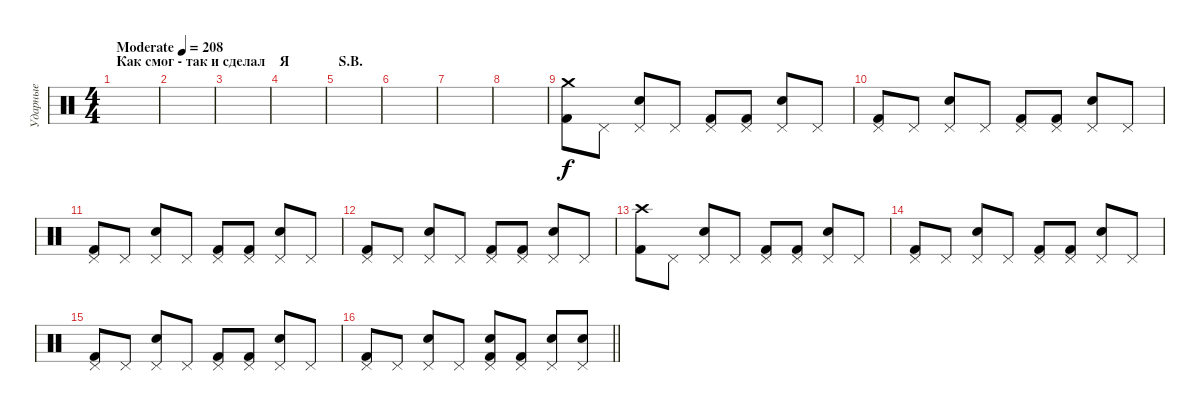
\track ("Ударные" "Ударные") {instrument percussion}
\staff {score}
\articulation defaults
\ts (4 4)
\section ("" "Как смог - так и сделал    Я              S.B.")
\tempo (208 "Moderate")
\clef neutral
\ks c
|
|
|
|
|
|
|
|
("Crash medium (hit)" "Kick (hit) 2").8 "Pedal Hi-Hat (hit)".8 ("Pedal Hi-Hat (hit)" "Electric Snare (hit)").8 "Pedal Hi-Hat (hit)".8 ("Pedal Hi-Hat (hit)" "Kick (hit) 2").8 ("Pedal Hi-Hat (hit)" "Kick (hit) 2").8 ("Pedal Hi-Hat (hit)" "Electric Snare (hit)").8 "Pedal Hi-Hat (hit)".8 |
("Pedal Hi-Hat (hit)" "Kick (hit) 2").8 "Pedal Hi-Hat (hit)".8 ("Pedal Hi-Hat (hit)" "Electric Snare (hit)").8 "Pedal Hi-Hat (hit)".8 ("Pedal Hi-Hat (hit)" "Kick (hit) 2").8 ("Pedal Hi-Hat (hit)" "Kick (hit) 2").8 ("Pedal Hi-Hat (hit)" "Electric Snare (hit)").8 "Pedal Hi-Hat (hit)".8 |
("Pedal Hi-Hat (hit)" "Kick (hit) 2").8 "Pedal Hi-Hat (hit)".8 ("Pedal Hi-Hat (hit)" "Electric Snare (hit)").8 "Pedal Hi-Hat (hit)".8 ("Pedal Hi-Hat (hit)" "Kick (hit) 2").8 ("Pedal Hi-Hat (hit)" "Kick (hit) 2").8 ("Pedal Hi-Hat (hit)" "Electric Snare (hit)").8 "Pedal Hi-Hat (hit)".8 |
("Pedal Hi-Hat (hit)" "Kick (hit) 2").8 "Pedal Hi-Hat (hit)".8 ("Pedal Hi-Hat (hit)" "Electric Snare (hit)").8 "Pedal Hi-Hat (hit)".8 ("Pedal Hi-Hat (hit)" "Kick (hit) 2").8 ("Pedal Hi-Hat (hit)" "Kick (hit) 2").8 ("Pedal Hi-Hat (hit)" "Electric Snare (hit)").8 "Pedal Hi-Hat (hit)".8 |
("Crash high (hit)" "Kick (hit) 2").8 "Pedal Hi-Hat (hit)".8 ("Pedal Hi-Hat (hit)" "Electric Snare (hit)").8 "Pedal Hi-Hat (hit)".8 ("Pedal Hi-Hat (hit)" "Kick (hit) 2").8 ("Pedal Hi-Hat (hit)" "Kick (hit) 2").8 ("Pedal Hi-Hat (hit)" "Electric Snare (hit)").8 "Pedal Hi-Hat (hit)".8 |
("Pedal Hi-Hat (hit)" "Kick (hit) 2").8 "Pedal Hi-Hat (hit)".8 ("Pedal Hi-Hat (hit)" "Electric Snare (hit)").8 "Pedal Hi-Hat (hit)".8 ("Pedal Hi-Hat (hit)" "Kick (hit) 2").8 ("Pedal Hi-Hat (hit)" "Kick (hit) 2").8 ("Pedal Hi-Hat (hit)" "Electric Snare (hit)").8 "Pedal Hi-Hat (hit)".8 |
("Pedal Hi-Hat (hit)" "Kick (hit) 2").8 "Pedal Hi-Hat (hit)".8 ("Pedal Hi-Hat (hit)" "Electric Snare (hit)").8 "Pedal Hi-Hat (hit)".8 ("Pedal Hi-Hat (hit)" "Kick (hit) 2").8 ("Pedal Hi-Hat (hit)" "Kick (hit) 2").8 ("Pedal Hi-Hat (hit)" "Electric Snare (hit)").8 "Pedal Hi-Hat (hit)".8 |
\barLineRight lightlight
("Pedal Hi-Hat (hit)" "Kick (hit) 2").8 "Pedal Hi-Hat (hit)".8 ("Pedal Hi-Hat (hit)" "Electric Snare (hit)").8 "Pedal Hi-Hat (hit)".8 ("Pedal Hi-Hat (hit)" "Electric Snare (hit)" "Kick (hit) 2").8 ("Pedal Hi-Hat (hit)" "Kick (hit) 2").8 ("Pedal Hi-Hat (hit)" "Electric Snare (hit)").8 ("Pedal Hi-Hat (hit)" "Electric Snare (hit)").8
